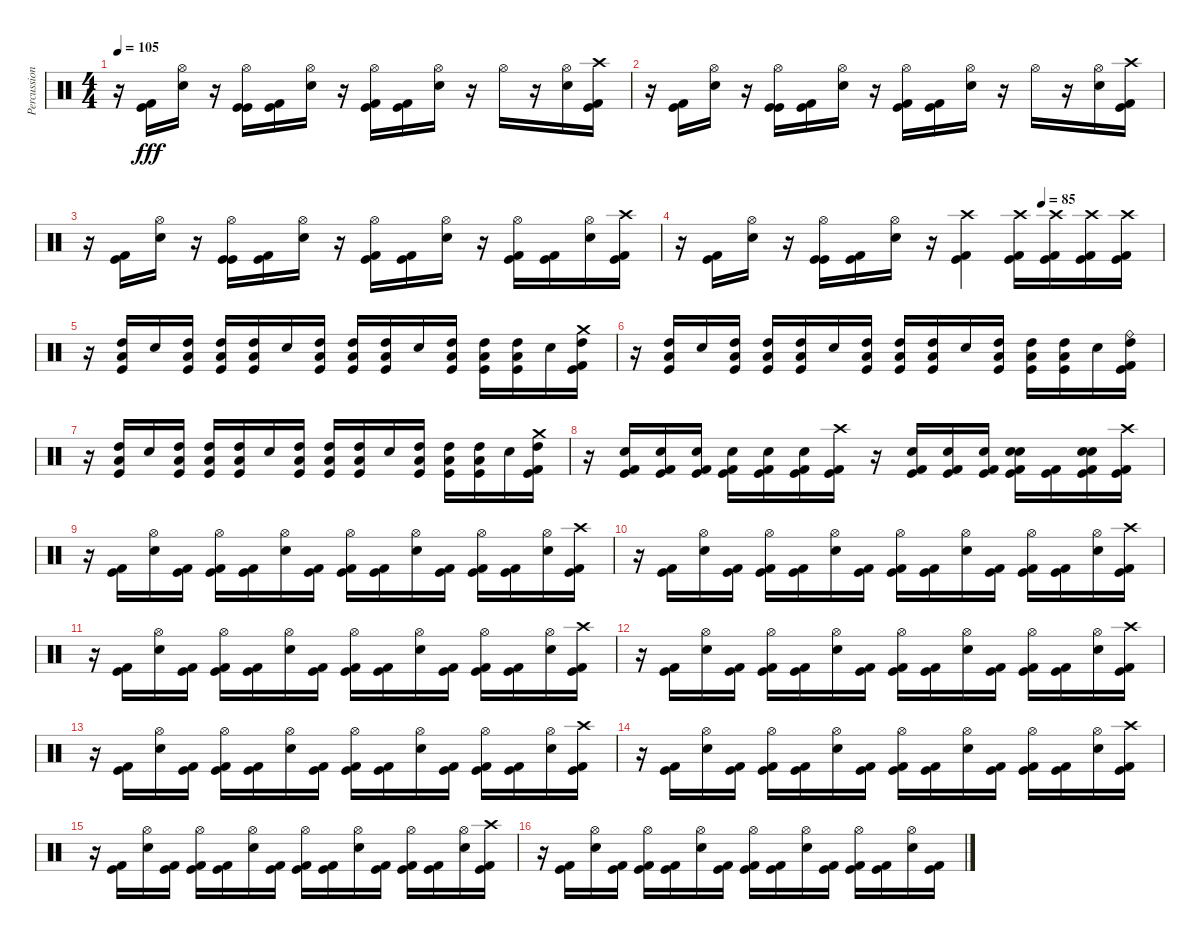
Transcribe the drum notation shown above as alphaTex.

\track ("Percussion" "Percussion") {instrument percussion}
\staff {score}
\articulation defaults
\ts (4 4)
\tempo 105
\clef neutral
\ks c
r.16{dy fff} ("Kick (hit) 2" "Kick (hit)").16 ("Hi-Hat (open)" "Electric Snare (hit)").16 r.16 ("Hi-Hat (open)" "Kick (hit)" "Kick (hit)").16 ("Kick (hit) 2" "Kick (hit)").16 ("Hi-Hat (open)" "Electric Snare (hit)").16 r.16 ("Hi-Hat (open)" "Kick (hit)" "Kick (hit) 2").16 ("Kick (hit)" "Kick (hit) 2").16 ("Hi-Hat (open)" "Electric Snare (hit)").16 r.16 "Hi-Hat (open)".16 r.16 ("Electric Snare (hit)" "Hi-Hat (open)").16 ("Crash high (hit)" "Kick (hit) 2" "Kick (hit)").16 |
r.16 ("Kick (hit) 2" "Kick (hit)").16 ("Hi-Hat (open)" "Electric Snare (hit)").16 r.16 ("Hi-Hat (open)" "Kick (hit)" "Kick (hit)").16 ("Kick (hit) 2" "Kick (hit)").16 ("Hi-Hat (open)" "Electric Snare (hit)").16 r.16 ("Hi-Hat (open)" "Kick (hit)" "Kick (hit) 2").16 ("Kick (hit)" "Kick (hit) 2").16 ("Hi-Hat (open)" "Electric Snare (hit)").16 r.16 "Hi-Hat (open)".16 r.16 ("Electric Snare (hit)" "Hi-Hat (open)").16 ("Crash high (hit)" "Kick (hit) 2" "Kick (hit)").16 |
r.16 ("Kick (hit)" "Kick (hit) 2").16 ("Hi-Hat (open)" "Electric Snare (hit)").16 r.16 ("Hi-Hat (open)" "Kick (hit)" "Kick (hit)").16 ("Kick (hit) 2" "Kick (hit)").16 ("Hi-Hat (open)" "Electric Snare (hit)").16 r.16 ("Hi-Hat (open)" "Kick (hit)" "Kick (hit) 2").16 ("Kick (hit)" "Kick (hit) 2").16 ("Hi-Hat (open)" "Electric Snare (hit)").16 r.16 ("Hi-Hat (open)" "Kick (hit)" "Kick (hit) 2").16 ("Kick (hit)" "Kick (hit) 2").16 ("Electric Snare (hit)" "Hi-Hat (open)").16 ("Crash high (hit)" "Kick (hit) 2" "Kick (hit)").16 |
\tempo (85 0.75)
r.16 ("Kick (hit) 2" "Kick (hit)").16 ("Hi-Hat (open)" "Electric Snare (hit)").16 r.16 ("Hi-Hat (open)" "Kick (hit)" "Kick (hit)").16 ("Kick (hit) 2" "Kick (hit)").16 ("Hi-Hat (open)" "Electric Snare (hit)").16 r.16 ("Crash high (hit)" "Kick (hit)" "Kick (hit) 2").4 ("Crash high (hit)" "Kick (hit)" "Kick (hit) 2").16 ("Crash high (hit)" "Kick (hit)" "Kick (hit) 2").16 ("Crash high (hit)" "Kick (hit)" "Kick (hit) 2").16 ("Crash high (hit)" "Kick (hit)" "Kick (hit) 2").16 |
r.16 ("Low Tom (hit)" "High Tom (hit)" "Kick (hit)").16 "Electric Snare (hit)".16 ("Low Tom (hit)" "High Tom (hit)" "Kick (hit)").16 ("Low Tom (hit)" "High Tom (hit)" "Kick (hit)").16 ("Low Tom (hit)" "High Tom (hit)" "Kick (hit)").16 "Electric Snare (hit)".16 ("Low Tom (hit)" "High Tom (hit)" "Kick (hit)").16 ("Low Tom (hit)" "High Tom (hit)" "Kick (hit)").16 ("Low Tom (hit)" "High Tom (hit)" "Kick (hit)").16 "Electric Snare (hit)".16 ("Low Tom (hit)" "High Tom (hit)" "Kick (hit)").16 ("Low Tom (hit)" "High Tom (hit)" "Kick (hit)").16 ("Low Tom (hit)" "High Tom (hit)" "Kick (hit)").16 "Electric Snare (hit)".16 ("Crash medium (hit)" "High Tom (hit)" "Kick (hit) 2" "Kick (hit)").16 |
r.16 ("Low Tom (hit)" "High Tom (hit)" "Kick (hit)").16 "Electric Snare (hit)".16 ("Low Tom (hit)" "High Tom (hit)" "Kick (hit)").16 ("Low Tom (hit)" "High Tom (hit)" "Kick (hit)").16 ("Low Tom (hit)" "High Tom (hit)" "Kick (hit)").16 "Electric Snare (hit)".16 ("Low Tom (hit)" "High Tom (hit)" "Kick (hit)").16 ("Low Tom (hit)" "High Tom (hit)" "Kick (hit)").16 ("Low Tom (hit)" "High Tom (hit)" "Kick (hit)").16 "Electric Snare (hit)".16 ("Low Tom (hit)" "High Tom (hit)" "Kick (hit)").16 ("Low Tom (hit)" "High Tom (hit)" "Kick (hit)").16 ("Low Tom (hit)" "High Tom (hit)" "Kick (hit)").16 "Electric Snare (hit)".16 ("Ride (bell)" "High Tom (hit)" "Kick (hit) 2" "Kick (hit)").16 |
r.16 ("Low Tom (hit)" "High Tom (hit)" "Kick (hit)").16 "Electric Snare (hit)".16 ("Low Tom (hit)" "High Tom (hit)" "Kick (hit)").16 ("Low Tom (hit)" "High Tom (hit)" "Kick (hit)").16 ("Low Tom (hit)" "High Tom (hit)" "Kick (hit)").16 "Electric Snare (hit)".16 ("Low Tom (hit)" "High Tom (hit)" "Kick (hit)").16 ("Low Tom (hit)" "High Tom (hit)" "Kick (hit)").16 ("Low Tom (hit)" "High Tom (hit)" "Kick (hit)").16 "Electric Snare (hit)".16 ("Low Tom (hit)" "High Tom (hit)" "Kick (hit)").16 ("Low Tom (hit)" "High Tom (hit)" "Kick (hit)").16 ("Low Tom (hit)" "High Tom (hit)" "Kick (hit)").16 "Electric Snare (hit)".16 ("Crash medium (hit)" "High Tom (hit)" "Kick (hit) 2" "Kick (hit)").16 |
r.16 ("Electric Snare (hit)" "Kick (hit)" "Kick (hit) 2").16 ("Electric Snare (hit)" "Kick (hit)" "Kick (hit) 2").16 ("Electric Snare (hit)" "Kick (hit)" "Kick (hit) 2").16 ("Electric Snare (hit)" "Kick (hit)" "Kick (hit) 2").16 ("Electric Snare (hit)" "Kick (hit)" "Kick (hit) 2").16 ("Electric Snare (hit)" "Kick (hit)" "Kick (hit) 2").16 ("Crash high (hit)" "Kick (hit)" "Kick (hit) 2").16 r.16 ("Electric Snare (hit)" "Kick (hit)" "Kick (hit) 2").16 ("Electric Snare (hit)" "Kick (hit)" "Kick (hit) 2").16 ("Electric Snare (hit)" "Kick (hit)" "Kick (hit) 2").16 ("Electric Snare (hit)" "Electric Snare (hit)" "Kick (hit)" "Kick (hit) 2").16 ("Kick (hit)" "Kick (hit) 2").16 ("Electric Snare (hit)" "Electric Snare (hit)" "Kick (hit)" "Kick (hit) 2").16 ("Crash high (hit)" "Kick (hit)" "Kick (hit) 2").16 |
r.16 ("Kick (hit)" "Kick (hit) 2").16 ("Hi-Hat (open)" "Electric Snare (hit)").16 ("Kick (hit)" "Kick (hit) 2").16 ("Hi-Hat (open)" "Kick (hit)" "Kick (hit) 2").16 ("Kick (hit)" "Kick (hit) 2").16 ("Hi-Hat (open)" "Electric Snare (hit)").16 ("Kick (hit)" "Kick (hit) 2").16 ("Hi-Hat (open)" "Kick (hit)" "Kick (hit) 2").16 ("Kick (hit)" "Kick (hit) 2").16 ("Hi-Hat (open)" "Electric Snare (hit)").16 ("Kick (hit)" "Kick (hit) 2").16 ("Hi-Hat (open)" "Kick (hit)" "Kick (hit) 2").16 ("Kick (hit)" "Kick (hit) 2").16 ("Hi-Hat (open)" "Electric Snare (hit)").16 ("Crash high (hit)" "Kick (hit)" "Kick (hit) 2").16 |
r.16 ("Kick (hit)" "Kick (hit) 2").16 ("Hi-Hat (open)" "Electric Snare (hit)").16 ("Kick (hit)" "Kick (hit) 2").16 ("Hi-Hat (open)" "Kick (hit)" "Kick (hit) 2").16 ("Kick (hit)" "Kick (hit) 2").16 ("Hi-Hat (open)" "Electric Snare (hit)").16 ("Kick (hit)" "Kick (hit) 2").16 ("Hi-Hat (open)" "Kick (hit)" "Kick (hit) 2").16 ("Kick (hit)" "Kick (hit) 2").16 ("Hi-Hat (open)" "Electric Snare (hit)").16 ("Kick (hit)" "Kick (hit) 2").16 ("Hi-Hat (open)" "Kick (hit)" "Kick (hit) 2").16 ("Kick (hit)" "Kick (hit) 2").16 ("Hi-Hat (open)" "Electric Snare (hit)").16 ("Crash high (hit)" "Kick (hit)" "Kick (hit) 2").16 |
r.16 ("Kick (hit)" "Kick (hit) 2").16 ("Hi-Hat (open)" "Electric Snare (hit)").16 ("Kick (hit)" "Kick (hit) 2").16 ("Hi-Hat (open)" "Kick (hit)" "Kick (hit) 2").16 ("Kick (hit)" "Kick (hit) 2").16 ("Hi-Hat (open)" "Electric Snare (hit)").16 ("Kick (hit)" "Kick (hit) 2").16 ("Hi-Hat (open)" "Kick (hit)" "Kick (hit) 2").16 ("Kick (hit)" "Kick (hit) 2").16 ("Hi-Hat (open)" "Electric Snare (hit)").16 ("Kick (hit)" "Kick (hit) 2").16 ("Hi-Hat (open)" "Kick (hit)" "Kick (hit) 2").16 ("Kick (hit)" "Kick (hit) 2").16 ("Hi-Hat (open)" "Electric Snare (hit)").16 ("Crash high (hit)" "Kick (hit)" "Kick (hit) 2").16 |
r.16 ("Kick (hit)" "Kick (hit) 2").16 ("Hi-Hat (open)" "Electric Snare (hit)").16 ("Kick (hit)" "Kick (hit) 2").16 ("Hi-Hat (open)" "Kick (hit)" "Kick (hit) 2").16 ("Kick (hit)" "Kick (hit) 2").16 ("Hi-Hat (open)" "Electric Snare (hit)").16 ("Kick (hit)" "Kick (hit) 2").16 ("Hi-Hat (open)" "Kick (hit)" "Kick (hit) 2").16 ("Kick (hit)" "Kick (hit) 2").16 ("Hi-Hat (open)" "Electric Snare (hit)").16 ("Kick (hit)" "Kick (hit) 2").16 ("Hi-Hat (open)" "Kick (hit)" "Kick (hit) 2").16 ("Kick (hit)" "Kick (hit) 2").16 ("Hi-Hat (open)" "Electric Snare (hit)").16 ("Crash high (hit)" "Kick (hit)" "Kick (hit) 2").16 |
r.16 ("Kick (hit)" "Kick (hit) 2").16 ("Hi-Hat (open)" "Electric Snare (hit)").16 ("Kick (hit)" "Kick (hit) 2").16 ("Hi-Hat (open)" "Kick (hit)" "Kick (hit) 2").16 ("Kick (hit)" "Kick (hit) 2").16 ("Hi-Hat (open)" "Electric Snare (hit)").16 ("Kick (hit)" "Kick (hit) 2").16 ("Hi-Hat (open)" "Kick (hit)" "Kick (hit) 2").16 ("Kick (hit)" "Kick (hit) 2").16 ("Hi-Hat (open)" "Electric Snare (hit)").16 ("Kick (hit)" "Kick (hit) 2").16 ("Hi-Hat (open)" "Kick (hit)" "Kick (hit) 2").16 ("Kick (hit)" "Kick (hit) 2").16 ("Hi-Hat (open)" "Electric Snare (hit)").16 ("Crash high (hit)" "Kick (hit)" "Kick (hit) 2").16 |
r.16 ("Kick (hit)" "Kick (hit) 2").16 ("Hi-Hat (open)" "Electric Snare (hit)").16 ("Kick (hit)" "Kick (hit) 2").16 ("Hi-Hat (open)" "Kick (hit)" "Kick (hit) 2").16 ("Kick (hit)" "Kick (hit) 2").16 ("Hi-Hat (open)" "Electric Snare (hit)").16 ("Kick (hit)" "Kick (hit) 2").16 ("Hi-Hat (open)" "Kick (hit)" "Kick (hit) 2").16 ("Kick (hit)" "Kick (hit) 2").16 ("Hi-Hat (open)" "Electric Snare (hit)").16 ("Kick (hit)" "Kick (hit) 2").16 ("Hi-Hat (open)" "Kick (hit)" "Kick (hit) 2").16 ("Kick (hit)" "Kick (hit) 2").16 ("Hi-Hat (open)" "Electric Snare (hit)").16 ("Crash high (hit)" "Kick (hit)" "Kick (hit) 2").16 |
r.16 ("Kick (hit)" "Kick (hit) 2").16 ("Hi-Hat (open)" "Electric Snare (hit)").16 ("Kick (hit)" "Kick (hit) 2").16 ("Hi-Hat (open)" "Kick (hit)" "Kick (hit) 2").16 ("Kick (hit)" "Kick (hit) 2").16 ("Hi-Hat (open)" "Electric Snare (hit)").16 ("Kick (hit)" "Kick (hit) 2").16 ("Hi-Hat (open)" "Kick (hit)" "Kick (hit) 2").16 ("Kick (hit)" "Kick (hit) 2").16 ("Hi-Hat (open)" "Electric Snare (hit)").16 ("Kick (hit)" "Kick (hit) 2").16 ("Hi-Hat (open)" "Kick (hit)" "Kick (hit) 2").16 ("Kick (hit)" "Kick (hit) 2").16 ("Hi-Hat (open)" "Electric Snare (hit)").16 ("Crash high (hit)" "Kick (hit)" "Kick (hit) 2").16 |
r.16 ("Kick (hit)" "Kick (hit) 2").16 ("Hi-Hat (open)" "Electric Snare (hit)").16 ("Kick (hit)" "Kick (hit) 2").16 ("Hi-Hat (open)" "Kick (hit)" "Kick (hit) 2").16 ("Kick (hit)" "Kick (hit) 2").16 ("Hi-Hat (open)" "Electric Snare (hit)").16 ("Kick (hit)" "Kick (hit) 2").16 ("Hi-Hat (open)" "Kick (hit)" "Kick (hit) 2").16 ("Kick (hit)" "Kick (hit) 2").16 ("Hi-Hat (open)" "Electric Snare (hit)").16 ("Kick (hit)" "Kick (hit) 2").16 ("Hi-Hat (open)" "Kick (hit)" "Kick (hit) 2").16 ("Kick (hit)" "Kick (hit) 2").16 ("Hi-Hat (open)" "Electric Snare (hit)").16 ("Kick (hit)" "Kick (hit) 2").16
